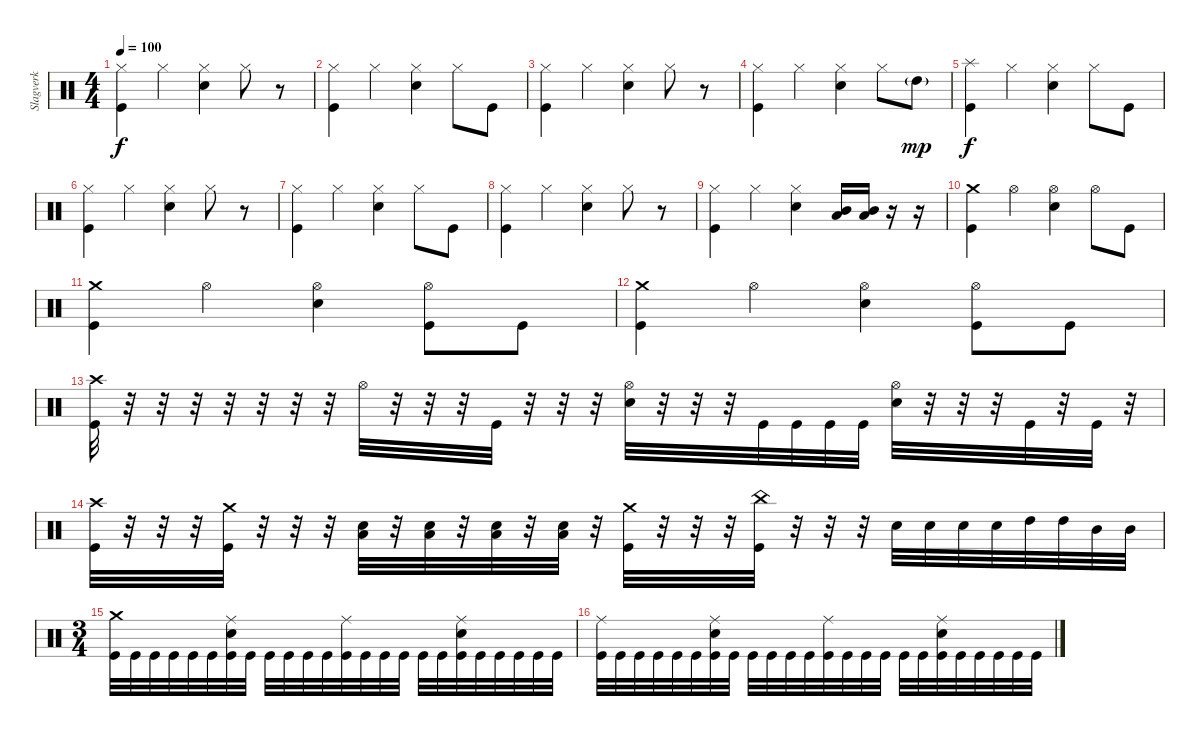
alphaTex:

\track ("Slagverk" "Slagverk") {solo instrument percussion}
\staff {score}
\articulation defaults
\ts (4 4)
\tempo 100
\clef neutral
\ks c
("Hi-Hat (closed)" "Kick (hit)").4{dy f} "Hi-Hat (closed)".4 ("Hi-Hat (closed)" "Electric Snare (hit)").4 "Hi-Hat (closed)".8 r.8 |
("Hi-Hat (closed)" "Kick (hit)").4 "Hi-Hat (closed)".4 ("Hi-Hat (closed)" "Electric Snare (hit)").4 "Hi-Hat (closed)".8 "Kick (hit)".8 |
("Hi-Hat (closed)" "Kick (hit)").4 "Hi-Hat (closed)".4 ("Hi-Hat (closed)" "Electric Snare (hit)").4 "Hi-Hat (closed)".8 r.8 |
("Hi-Hat (closed)" "Kick (hit)").4 "Hi-Hat (closed)".4 ("Hi-Hat (closed)" "Electric Snare (hit)").4 "Hi-Hat (closed)".8 "High Tom (hit)"{g}.8{dy mp} |
("Splash (hit)" "Kick (hit)").4{dy f} "Hi-Hat (closed)".4 ("Hi-Hat (closed)" "Electric Snare (hit)").4 "Hi-Hat (closed)".8 "Kick (hit)".8 |
("Hi-Hat (closed)" "Kick (hit)").4 "Hi-Hat (closed)".4 ("Hi-Hat (closed)" "Electric Snare (hit)").4 "Hi-Hat (closed)".8 r.8 |
("Hi-Hat (closed)" "Kick (hit)").4 "Hi-Hat (closed)".4 ("Hi-Hat (closed)" "Electric Snare (hit)").4 "Hi-Hat (closed)".8 "Kick (hit)".8 |
("Hi-Hat (closed)" "Kick (hit)").4 "Hi-Hat (closed)".4 ("Hi-Hat (closed)" "Electric Snare (hit)").4 "Hi-Hat (closed)".8 r.8 |
("Hi-Hat (closed)" "Kick (hit)").4 "Hi-Hat (closed)".4 ("Hi-Hat (closed)" "Electric Snare (hit)").4 ("Mid Tom (hit)" "Low Tom (hit)").16 ("Mid Tom (hit)" "Low Tom (hit)").16 r.16 r.16 |
("Crash medium (hit)" "Kick (hit)").4 "Hi-Hat (open)".4 ("Hi-Hat (open)" "Electric Snare (hit)").4 "Hi-Hat (open)".8 "Kick (hit)".8 |
("Crash medium (hit)" "Kick (hit)").4 "Hi-Hat (open)".4 ("Hi-Hat (open)" "Electric Snare (hit)").4 ("Hi-Hat (open)" "Kick (hit)").8 "Kick (hit)".8 |
("Crash medium (hit)" "Kick (hit)").4 "Hi-Hat (open)".4 ("Hi-Hat (open)" "Electric Snare (hit)").4 ("Hi-Hat (open)" "Kick (hit)").8 "Kick (hit)".8 |
("Crash high (hit)" "Kick (hit)").32 r.32 r.32 r.32 r.32 r.32 r.32 r.32 "Hi-Hat (open)".32 r.32 r.32 r.32 "Kick (hit)".32 r.32 r.32 r.32 ("Hi-Hat (open)" "Electric Snare (hit)").32 r.32 r.32 r.32 "Kick (hit)".32 "Kick (hit)".32 "Kick (hit)".32 "Kick (hit)".32 ("Hi-Hat (open)" "Electric Snare (hit)").32 r.32 r.32 r.32 "Kick (hit)".32 r.32 "Kick (hit)".32 r.32 |
("Crash high (hit)" "Kick (hit)").32 r.32 r.32 r.32 ("Crash medium (hit)" "Kick (hit)").32 r.32 r.32 r.32 ("Low Floor Tom (hit)" "Electric Snare (hit)").32 r.32 ("Low Floor Tom (hit)" "Electric Snare (hit)").32 r.32 ("Low Floor Tom (hit)" "Electric Snare (hit)").32 r.32 ("Low Floor Tom (hit)" "Electric Snare (hit)").32 r.32 ("Crash medium (hit)" "Kick (hit)").32 r.32 r.32 r.32 ("China (hit)" "Kick (hit)").32 r.32 r.32 r.32 "Electric Snare (hit)".32 "Electric Snare (hit)".32 "Electric Snare (hit)".32 "Electric Snare (hit)".32 "High Tom (hit)".32 "High Tom (hit)".32 "Mid Tom (hit)".32 "Mid Tom (hit)".32 |
\ts (3 4)
("Crash medium (hit)" "Kick (hit)").32 "Kick (hit)".32 "Kick (hit)".32 "Kick (hit)".32 "Kick (hit)".32 "Kick (hit)".32 ("Ride (middle)" "Electric Snare (hit)" "Kick (hit)").32 "Kick (hit)".32 "Kick (hit)".32 "Kick (hit)".32 "Kick (hit)".32 "Kick (hit)".32 ("Ride (middle)" "Kick (hit)").32 "Kick (hit)".32 "Kick (hit)".32 "Kick (hit)".32 "Kick (hit)".32 "Kick (hit)".32 ("Ride (middle)" "Electric Snare (hit)" "Kick (hit)").32 "Kick (hit)".32 "Kick (hit)".32 "Kick (hit)".32 "Kick (hit)".32 "Kick (hit)".32 |
("Ride (middle)" "Kick (hit)").32 "Kick (hit)".32 "Kick (hit)".32 "Kick (hit)".32 "Kick (hit)".32 "Kick (hit)".32 ("Ride (middle)" "Electric Snare (hit)" "Kick (hit)").32 "Kick (hit)".32 "Kick (hit)".32 "Kick (hit)".32 "Kick (hit)".32 "Kick (hit)".32 ("Ride (middle)" "Kick (hit)").32 "Kick (hit)".32 "Kick (hit)".32 "Kick (hit)".32 "Kick (hit)".32 "Kick (hit)".32 ("Ride (middle)" "Electric Snare (hit)" "Kick (hit)").32 "Kick (hit)".32 "Kick (hit)".32 "Kick (hit)".32 "Kick (hit)".32 "Kick (hit)".32
